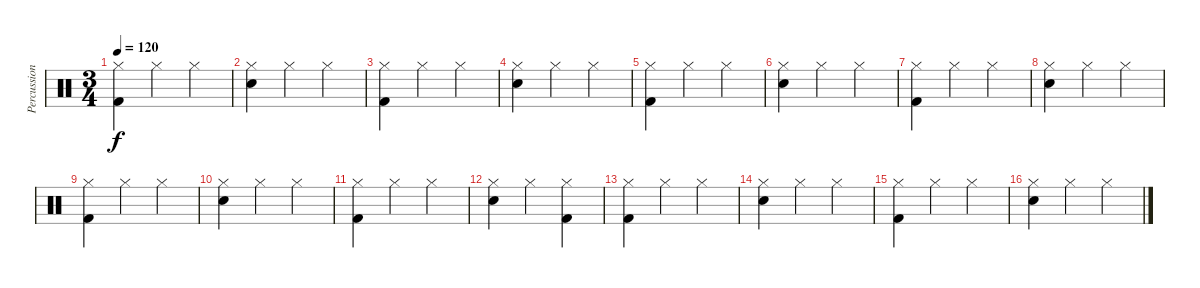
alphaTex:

\track ("Percussion" "Percussion") {instrument percussion}
\staff {score}
\articulation defaults
\ts (3 4)
\tempo 120
\clef neutral
\ks c
("Kick (hit) 2" "Hi-Hat (closed)").4{dy f} "Hi-Hat (closed)".4 "Hi-Hat (closed)".4 |
("Snare (hit) 2" "Hi-Hat (closed)").4 "Hi-Hat (closed)".4 "Hi-Hat (closed)".4 |
("Kick (hit) 2" "Hi-Hat (closed)").4 "Hi-Hat (closed)".4 "Hi-Hat (closed)".4 |
("Snare (hit) 2" "Hi-Hat (closed)").4 "Hi-Hat (closed)".4 "Hi-Hat (closed)".4 |
("Kick (hit) 2" "Hi-Hat (closed)").4 "Hi-Hat (closed)".4 "Hi-Hat (closed)".4 |
("Snare (hit) 2" "Hi-Hat (closed)").4 "Hi-Hat (closed)".4 "Hi-Hat (closed)".4 |
("Kick (hit) 2" "Hi-Hat (closed)").4 "Hi-Hat (closed)".4 "Hi-Hat (closed)".4 |
("Snare (hit) 2" "Hi-Hat (closed)").4 "Hi-Hat (closed)".4 "Hi-Hat (closed)".4 |
("Kick (hit) 2" "Hi-Hat (closed)").4 "Hi-Hat (closed)".4 "Hi-Hat (closed)".4 |
("Snare (hit) 2" "Hi-Hat (closed)").4 "Hi-Hat (closed)".4 "Hi-Hat (closed)".4 |
("Kick (hit) 2" "Hi-Hat (closed)").4 "Hi-Hat (closed)".4 "Hi-Hat (closed)".4 |
("Snare (hit) 2" "Hi-Hat (closed)").4 "Hi-Hat (closed)".4 ("Kick (hit) 2" "Hi-Hat (closed)").4 |
("Kick (hit) 2" "Hi-Hat (closed)").4 "Hi-Hat (closed)".4 "Hi-Hat (closed)".4 |
("Snare (hit) 2" "Hi-Hat (closed)").4 "Hi-Hat (closed)".4 "Hi-Hat (closed)".4 |
("Kick (hit) 2" "Hi-Hat (closed)").4 "Hi-Hat (closed)".4 "Hi-Hat (closed)".4 |
("Snare (hit) 2" "Hi-Hat (closed)").4 "Hi-Hat (closed)".4 "Hi-Hat (closed)".4
